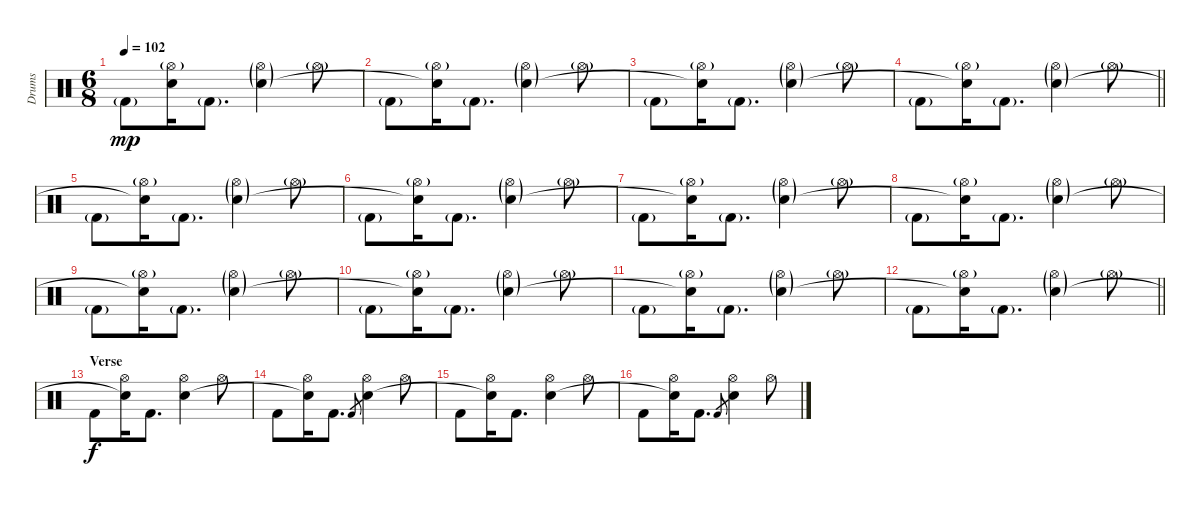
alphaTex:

\track ("Drums" "Drums") {instrument percussion}
\staff {score}
\articulation defaults
\ts (6 8)
\tempo 102
\clef neutral
\ks aminor "Kick (hit) 2"{g}.8{dy mp}
("Hi-Hat (open)"{g} "Snare (hit)"{t}).16 "Kick (hit) 2"{g}.8{d} ("Hi-Hat (open)"{g} "Snare (hit) 2"{g}).4 "Hi-Hat (open)"{g}.8 |
"Kick (hit) 2"{g}.8 ("Hi-Hat (open)"{g} "Snare (hit)"{t}).16 "Kick (hit) 2"{g}.8{d} ("Hi-Hat (open)"{g} "Snare (hit) 2"{g}).4 "Hi-Hat (open)"{g}.8 |
"Kick (hit) 2"{g}.8 ("Hi-Hat (open)"{g} "Snare (hit)"{t}).16 "Kick (hit) 2"{g}.8{d} ("Hi-Hat (open)"{g} "Snare (hit) 2"{g}).4 "Hi-Hat (open)"{g}.8 |
\barLineRight lightlight "Kick (hit) 2"{g}.8
("Hi-Hat (open)"{g} "Snare (hit)"{t}).16 "Kick (hit) 2"{g}.8{d} ("Hi-Hat (open)"{g} "Snare (hit) 2"{g}).4 "Hi-Hat (open)"{g}.8 |
"Kick (hit) 2"{g}.8 ("Hi-Hat (open)"{g} "Snare (hit)"{t}).16 "Kick (hit) 2"{g}.8{d} ("Hi-Hat (open)"{g} "Snare (hit) 2"{g}).4 "Hi-Hat (open)"{g}.8 |
"Kick (hit) 2"{g}.8 ("Hi-Hat (open)"{g} "Snare (hit)"{t}).16 "Kick (hit) 2"{g}.8{d} ("Hi-Hat (open)"{g} "Snare (hit) 2"{g}).4 "Hi-Hat (open)"{g}.8 |
"Kick (hit) 2"{g}.8 ("Hi-Hat (open)"{g} "Snare (hit)"{t}).16 "Kick (hit) 2"{g}.8{d} ("Hi-Hat (open)"{g} "Snare (hit) 2"{g}).4 "Hi-Hat (open)"{g}.8 |
"Kick (hit) 2"{g}.8 ("Hi-Hat (open)"{g} "Snare (hit)"{t}).16 "Kick (hit) 2"{g}.8{d} ("Hi-Hat (open)"{g} "Snare (hit) 2"{g}).4 "Hi-Hat (open)"{g}.8 |
"Kick (hit) 2"{g}.8 ("Hi-Hat (open)"{g} "Snare (hit)"{t}).16 "Kick (hit) 2"{g}.8{d} ("Hi-Hat (open)"{g} "Snare (hit) 2"{g}).4 "Hi-Hat (open)"{g}.8 |
"Kick (hit) 2"{g}.8 ("Hi-Hat (open)"{g} "Snare (hit)"{t}).16 "Kick (hit) 2"{g}.8{d} ("Hi-Hat (open)"{g} "Snare (hit) 2"{g}).4 "Hi-Hat (open)"{g}.8 |
"Kick (hit) 2"{g}.8 ("Hi-Hat (open)"{g} "Snare (hit)"{t}).16 "Kick (hit) 2"{g}.8{d} ("Hi-Hat (open)"{g} "Snare (hit) 2"{g}).4 "Hi-Hat (open)"{g}.8 |
\barLineRight lightlight "Kick (hit) 2"{g}.8
("Hi-Hat (open)"{g} "Snare (hit)"{t}).16 "Kick (hit) 2"{g}.8{d} ("Hi-Hat (open)"{g} "Snare (hit) 2"{g}).4 "Hi-Hat (open)"{g}.8 |
\section ("" "Verse ")
"Kick (hit) 2".8{dy f} ("Hi-Hat (open)" "Snare (hit)"{t}).16 "Kick (hit) 2".8{d} ("Hi-Hat (open)" "Snare (hit) 2").4 "Hi-Hat (open)".8 |
"Kick (hit) 2".8 ("Hi-Hat (open)" "Snare (hit)"{t}).16 "Kick (hit) 2".8{d} "Kick (hit) 2".8{gr} ("Hi-Hat (open)" "Snare (hit) 2").4 "Hi-Hat (open)".8 |
"Kick (hit) 2".8 ("Hi-Hat (open)" "Snare (hit)"{t}).16 "Kick (hit) 2".8{d} ("Hi-Hat (open)" "Snare (hit) 2").4 "Hi-Hat (open)".8 |
"Kick (hit) 2".8 ("Hi-Hat (open)" "Snare (hit)"{t}).16 "Kick (hit) 2".8{d} "Kick (hit) 2".8{gr} ("Hi-Hat (open)" "Snare (hit) 2").4 "Hi-Hat (open)".8
